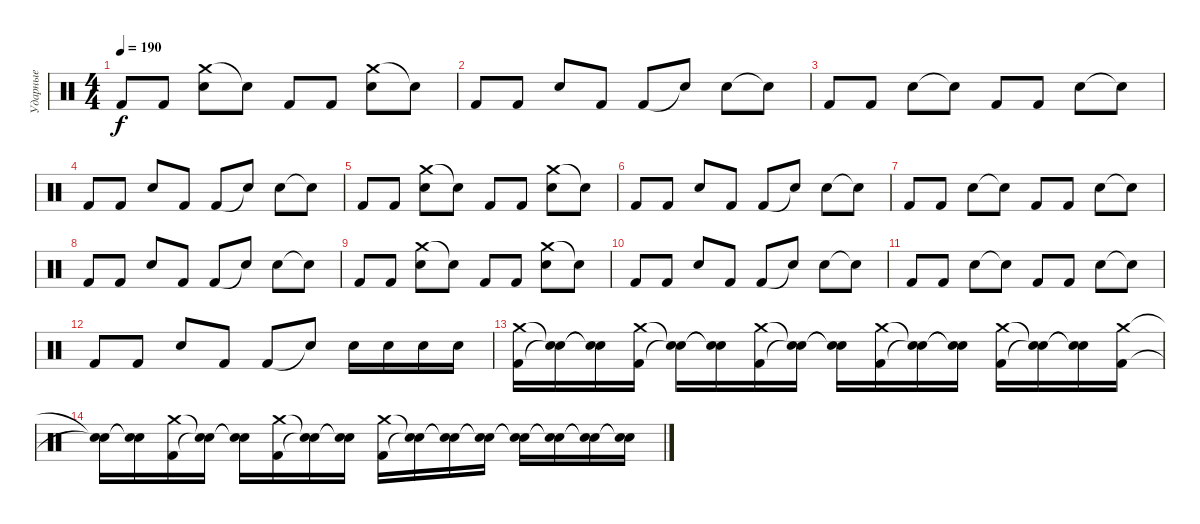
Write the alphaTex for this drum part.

\track ("Ударные" "Ударные") {instrument percussion}
\staff {score}
\articulation defaults
\ts (4 4)
\tempo 190
\clef neutral
\ks c "Kick (hit) 2".8{dy f} "Kick (hit) 2".8
("Crash medium (hit)" "Snare (hit) 2").8 "Snare (hit)"{t}.8 "Kick (hit) 2".8 "Kick (hit) 2".8 ("Crash medium (hit)" "Snare (hit) 2").8 "Snare (hit)"{t}.8 |
"Kick (hit) 2".8 "Kick (hit) 2".8 "Snare (hit) 2".8 "Kick (hit) 2".8 "Kick (hit) 2".8 "Snare (hit)"{t}.8 "Snare (hit) 2".8 "Snare (hit)"{t}.8 |
"Kick (hit) 2".8 "Kick (hit) 2".8 "Snare (hit) 2".8 "Snare (hit)"{t}.8 "Kick (hit) 2".8 "Kick (hit) 2".8 "Snare (hit) 2".8 "Snare (hit)"{t}.8 |
"Kick (hit) 2".8 "Kick (hit) 2".8 "Snare (hit) 2".8 "Kick (hit) 2".8 "Kick (hit) 2".8 "Snare (hit)"{t}.8 "Snare (hit) 2".8 "Snare (hit)"{t}.8 |
"Kick (hit) 2".8 "Kick (hit) 2".8 ("Crash medium (hit)" "Snare (hit) 2").8 "Snare (hit)"{t}.8 "Kick (hit) 2".8 "Kick (hit) 2".8 ("Crash medium (hit)" "Snare (hit) 2").8 "Snare (hit)"{t}.8 |
"Kick (hit) 2".8 "Kick (hit) 2".8 "Snare (hit) 2".8 "Kick (hit) 2".8 "Kick (hit) 2".8 "Snare (hit)"{t}.8 "Snare (hit) 2".8 "Snare (hit)"{t}.8 |
"Kick (hit) 2".8 "Kick (hit) 2".8 "Snare (hit) 2".8 "Snare (hit)"{t}.8 "Kick (hit) 2".8 "Kick (hit) 2".8 "Snare (hit) 2".8 "Snare (hit)"{t}.8 |
"Kick (hit) 2".8 "Kick (hit) 2".8 "Snare (hit) 2".8 "Kick (hit) 2".8 "Kick (hit) 2".8 "Snare (hit)"{t}.8 "Snare (hit) 2".8 "Snare (hit)"{t}.8 |
"Kick (hit) 2".8 "Kick (hit) 2".8 ("Crash medium (hit)" "Snare (hit) 2").8 "Snare (hit)"{t}.8 "Kick (hit) 2".8 "Kick (hit) 2".8 ("Crash medium (hit)" "Snare (hit) 2").8 "Snare (hit)"{t}.8 |
"Kick (hit) 2".8 "Kick (hit) 2".8 "Snare (hit) 2".8 "Kick (hit) 2".8 "Kick (hit) 2".8 "Snare (hit)"{t}.8 "Snare (hit) 2".8 "Snare (hit)"{t}.8 |
"Kick (hit) 2".8 "Kick (hit) 2".8 "Snare (hit) 2".8 "Snare (hit)"{t}.8 "Kick (hit) 2".8 "Kick (hit) 2".8 "Snare (hit) 2".8 "Snare (hit)"{t}.8 |
"Kick (hit) 2".8 "Kick (hit) 2".8 "Snare (hit) 2".8 "Kick (hit) 2".8 "Kick (hit) 2".8 "Snare (hit)"{t}.8 "Snare (hit) 2".16 "Snare (hit) 2".16 "Snare (hit) 2".16 "Snare (hit) 2".16 |
("Crash medium (hit)" "Kick (hit) 2").16 ("Snare (hit)"{t} "Snare (hit)"{t}).16 ("Snare (hit)"{t} "Snare (hit)"{t}).16 ("Crash medium (hit)" "Kick (hit) 2").16 ("Snare (hit)"{t} "Snare (hit)"{t}).16 ("Snare (hit)"{t} "Snare (hit)"{t}).16 ("Crash medium (hit)" "Kick (hit) 2").16 ("Snare (hit)"{t} "Snare (hit)"{t}).16 ("Snare (hit)"{t} "Snare (hit)"{t}).16 ("Crash medium (hit)" "Kick (hit) 2").16 ("Snare (hit)"{t} "Snare (hit)"{t}).16 ("Snare (hit)"{t} "Snare (hit)"{t}).16 ("Crash medium (hit)" "Kick (hit) 2").16 ("Snare (hit)"{t} "Snare (hit)"{t}).16 ("Snare (hit)"{t} "Snare (hit)"{t}).16 ("Crash medium (hit)" "Kick (hit) 2").16 |
("Snare (hit)"{t} "Snare (hit)"{t}).16 ("Snare (hit)"{t} "Snare (hit)"{t}).16 ("Crash medium (hit)" "Kick (hit) 2").16 ("Snare (hit)"{t} "Snare (hit)"{t}).16 ("Snare (hit)"{t} "Snare (hit)"{t}).16 ("Crash medium (hit)" "Kick (hit) 2").16 ("Snare (hit)"{t} "Snare (hit)"{t}).16 ("Snare (hit)"{t} "Snare (hit)"{t}).16 ("Crash medium (hit)" "Kick (hit) 2").16 ("Snare (hit)"{t} "Snare (hit)"{t}).16 ("Snare (hit)"{t} "Snare (hit)"{t}).16 ("Snare (hit)"{t} "Snare (hit)"{t}).16 ("Snare (hit)"{t} "Snare (hit)"{t}).16 ("Snare (hit)"{t} "Snare (hit)"{t}).16 ("Snare (hit)"{t} "Snare (hit)"{t}).16 ("Snare (hit)"{t} "Snare (hit)"{t}).16
